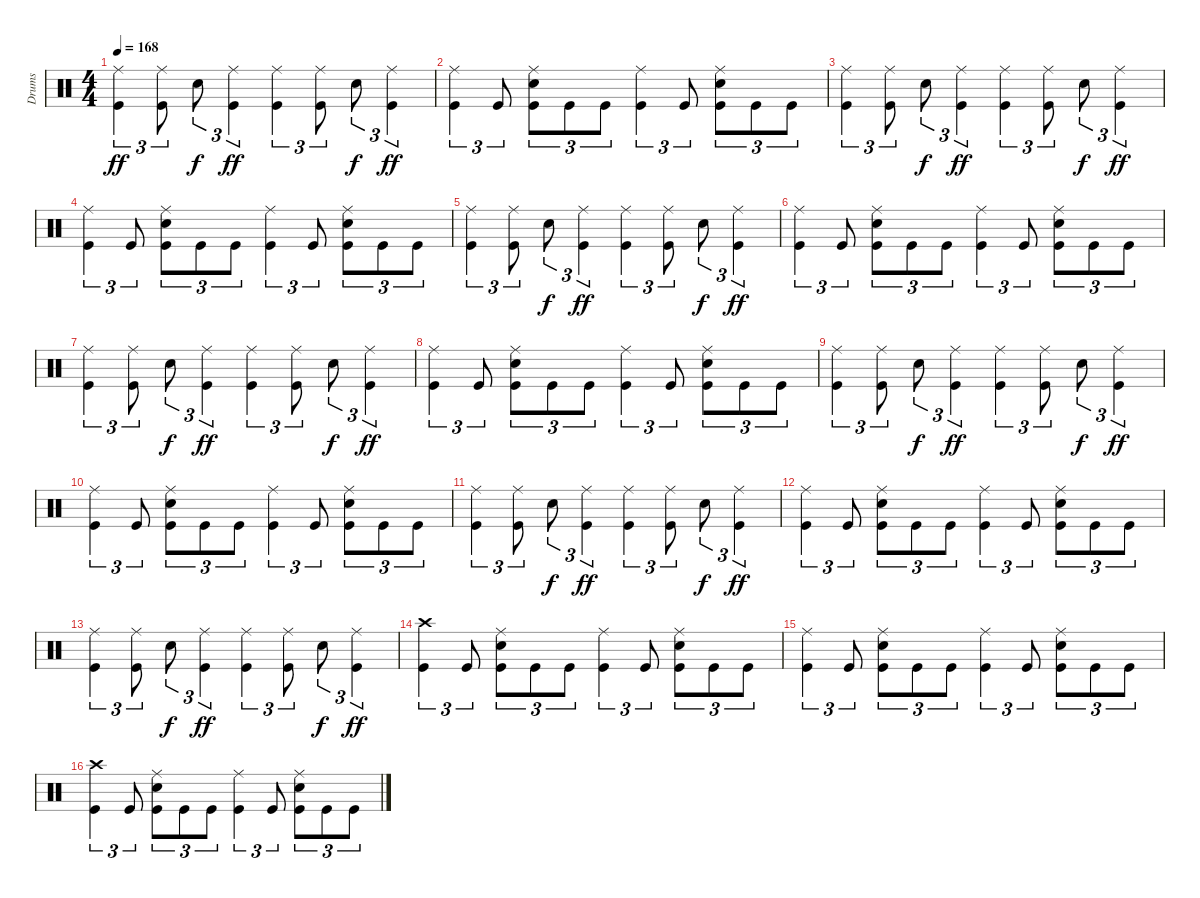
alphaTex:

\track ("Drums" "Drums") {instrument percussion}
\staff {score}
\articulation defaults
\ts (4 4)
\tempo 168
\clef neutral
\ks c
("Ride (middle)" "Kick (hit)").4{tu (3 2) dy ff} ("Ride (middle)" "Kick (hit)").8{tu (3 2)} "Electric Snare (hit)".8{tu (3 2) dy f} ("Ride (middle)" "Kick (hit)").4{tu (3 2) dy ff} ("Ride (middle)" "Kick (hit)").4{tu (3 2)} ("Ride (middle)" "Kick (hit)").8{tu (3 2)} "Electric Snare (hit)".8{tu (3 2) dy f} ("Ride (middle)" "Kick (hit)").4{tu (3 2) dy ff} |
("Ride (middle)" "Kick (hit)").4{tu (3 2)} "Kick (hit)".8{tu (3 2)} ("Ride (middle)" "Electric Snare (hit)" "Kick (hit)").8{tu (3 2)} "Kick (hit)".8{tu (3 2)} "Kick (hit)".8{tu (3 2)} ("Ride (middle)" "Kick (hit)").4{tu (3 2)} "Kick (hit)".8{tu (3 2)} ("Ride (middle)" "Electric Snare (hit)" "Kick (hit)").8{tu (3 2)} "Kick (hit)".8{tu (3 2)} "Kick (hit)".8{tu (3 2)} |
("Ride (middle)" "Kick (hit)").4{tu (3 2)} ("Ride (middle)" "Kick (hit)").8{tu (3 2)} "Electric Snare (hit)".8{tu (3 2) dy f} ("Ride (middle)" "Kick (hit)").4{tu (3 2) dy ff} ("Ride (middle)" "Kick (hit)").4{tu (3 2)} ("Ride (middle)" "Kick (hit)").8{tu (3 2)} "Electric Snare (hit)".8{tu (3 2) dy f} ("Ride (middle)" "Kick (hit)").4{tu (3 2) dy ff} |
("Ride (middle)" "Kick (hit)").4{tu (3 2)} "Kick (hit)".8{tu (3 2)} ("Ride (middle)" "Electric Snare (hit)" "Kick (hit)").8{tu (3 2)} "Kick (hit)".8{tu (3 2)} "Kick (hit)".8{tu (3 2)} ("Ride (middle)" "Kick (hit)").4{tu (3 2)} "Kick (hit)".8{tu (3 2)} ("Ride (middle)" "Electric Snare (hit)" "Kick (hit)").8{tu (3 2)} "Kick (hit)".8{tu (3 2)} "Kick (hit)".8{tu (3 2)} |
("Ride (middle)" "Kick (hit)").4{tu (3 2)} ("Ride (middle)" "Kick (hit)").8{tu (3 2)} "Electric Snare (hit)".8{tu (3 2) dy f} ("Ride (middle)" "Kick (hit)").4{tu (3 2) dy ff} ("Ride (middle)" "Kick (hit)").4{tu (3 2)} ("Ride (middle)" "Kick (hit)").8{tu (3 2)} "Electric Snare (hit)".8{tu (3 2) dy f} ("Ride (middle)" "Kick (hit)").4{tu (3 2) dy ff} |
("Ride (middle)" "Kick (hit)").4{tu (3 2)} "Kick (hit)".8{tu (3 2)} ("Ride (middle)" "Electric Snare (hit)" "Kick (hit)").8{tu (3 2)} "Kick (hit)".8{tu (3 2)} "Kick (hit)".8{tu (3 2)} ("Ride (middle)" "Kick (hit)").4{tu (3 2)} "Kick (hit)".8{tu (3 2)} ("Ride (middle)" "Electric Snare (hit)" "Kick (hit)").8{tu (3 2)} "Kick (hit)".8{tu (3 2)} "Kick (hit)".8{tu (3 2)} |
("Ride (middle)" "Kick (hit)").4{tu (3 2)} ("Ride (middle)" "Kick (hit)").8{tu (3 2)} "Electric Snare (hit)".8{tu (3 2) dy f} ("Ride (middle)" "Kick (hit)").4{tu (3 2) dy ff} ("Ride (middle)" "Kick (hit)").4{tu (3 2)} ("Ride (middle)" "Kick (hit)").8{tu (3 2)} "Electric Snare (hit)".8{tu (3 2) dy f} ("Ride (middle)" "Kick (hit)").4{tu (3 2) dy ff} |
("Ride (middle)" "Kick (hit)").4{tu (3 2)} "Kick (hit)".8{tu (3 2)} ("Ride (middle)" "Electric Snare (hit)" "Kick (hit)").8{tu (3 2)} "Kick (hit)".8{tu (3 2)} "Kick (hit)".8{tu (3 2)} ("Ride (middle)" "Kick (hit)").4{tu (3 2)} "Kick (hit)".8{tu (3 2)} ("Ride (middle)" "Electric Snare (hit)" "Kick (hit)").8{tu (3 2)} "Kick (hit)".8{tu (3 2)} "Kick (hit)".8{tu (3 2)} |
("Ride (middle)" "Kick (hit)").4{tu (3 2)} ("Ride (middle)" "Kick (hit)").8{tu (3 2)} "Electric Snare (hit)".8{tu (3 2) dy f} ("Ride (middle)" "Kick (hit)").4{tu (3 2) dy ff} ("Ride (middle)" "Kick (hit)").4{tu (3 2)} ("Ride (middle)" "Kick (hit)").8{tu (3 2)} "Electric Snare (hit)".8{tu (3 2) dy f} ("Ride (middle)" "Kick (hit)").4{tu (3 2) dy ff} |
("Ride (middle)" "Kick (hit)").4{tu (3 2)} "Kick (hit)".8{tu (3 2)} ("Ride (middle)" "Electric Snare (hit)" "Kick (hit)").8{tu (3 2)} "Kick (hit)".8{tu (3 2)} "Kick (hit)".8{tu (3 2)} ("Ride (middle)" "Kick (hit)").4{tu (3 2)} "Kick (hit)".8{tu (3 2)} ("Ride (middle)" "Electric Snare (hit)" "Kick (hit)").8{tu (3 2)} "Kick (hit)".8{tu (3 2)} "Kick (hit)".8{tu (3 2)} |
("Ride (middle)" "Kick (hit)").4{tu (3 2)} ("Ride (middle)" "Kick (hit)").8{tu (3 2)} "Electric Snare (hit)".8{tu (3 2) dy f} ("Ride (middle)" "Kick (hit)").4{tu (3 2) dy ff} ("Ride (middle)" "Kick (hit)").4{tu (3 2)} ("Ride (middle)" "Kick (hit)").8{tu (3 2)} "Electric Snare (hit)".8{tu (3 2) dy f} ("Ride (middle)" "Kick (hit)").4{tu (3 2) dy ff} |
("Ride (middle)" "Kick (hit)").4{tu (3 2)} "Kick (hit)".8{tu (3 2)} ("Ride (middle)" "Electric Snare (hit)" "Kick (hit)").8{tu (3 2)} "Kick (hit)".8{tu (3 2)} "Kick (hit)".8{tu (3 2)} ("Ride (middle)" "Kick (hit)").4{tu (3 2)} "Kick (hit)".8{tu (3 2)} ("Ride (middle)" "Electric Snare (hit)" "Kick (hit)").8{tu (3 2)} "Kick (hit)".8{tu (3 2)} "Kick (hit)".8{tu (3 2)} |
("Ride (middle)" "Kick (hit)").4{tu (3 2)} ("Ride (middle)" "Kick (hit)").8{tu (3 2)} "Electric Snare (hit)".8{tu (3 2) dy f} ("Ride (middle)" "Kick (hit)").4{tu (3 2) dy ff} ("Ride (middle)" "Kick (hit)").4{tu (3 2)} ("Ride (middle)" "Kick (hit)").8{tu (3 2)} "Electric Snare (hit)".8{tu (3 2) dy f} ("Ride (middle)" "Kick (hit)").4{tu (3 2) dy ff} |
("Crash high (hit)" "Kick (hit)").4{tu (3 2)} "Kick (hit)".8{tu (3 2)} ("Ride (middle)" "Electric Snare (hit)" "Kick (hit)").8{tu (3 2)} "Kick (hit)".8{tu (3 2)} "Kick (hit)".8{tu (3 2)} ("Ride (middle)" "Kick (hit)").4{tu (3 2)} "Kick (hit)".8{tu (3 2)} ("Ride (middle)" "Electric Snare (hit)" "Kick (hit)").8{tu (3 2)} "Kick (hit)".8{tu (3 2)} "Kick (hit)".8{tu (3 2)} |
("Ride (middle)" "Kick (hit)").4{tu (3 2)} "Kick (hit)".8{tu (3 2)} ("Ride (middle)" "Electric Snare (hit)" "Kick (hit)").8{tu (3 2)} "Kick (hit)".8{tu (3 2)} "Kick (hit)".8{tu (3 2)} ("Ride (middle)" "Kick (hit)").4{tu (3 2)} "Kick (hit)".8{tu (3 2)} ("Ride (middle)" "Electric Snare (hit)" "Kick (hit)").8{tu (3 2)} "Kick (hit)".8{tu (3 2)} "Kick (hit)".8{tu (3 2)} |
("Crash high (hit)" "Kick (hit)").4{tu (3 2)} "Kick (hit)".8{tu (3 2)} ("Ride (middle)" "Electric Snare (hit)" "Kick (hit)").8{tu (3 2)} "Kick (hit)".8{tu (3 2)} "Kick (hit)".8{tu (3 2)} ("Ride (middle)" "Kick (hit)").4{tu (3 2)} "Kick (hit)".8{tu (3 2)} ("Ride (middle)" "Electric Snare (hit)" "Kick (hit)").8{tu (3 2)} "Kick (hit)".8{tu (3 2)} "Kick (hit)".8{tu (3 2)}
